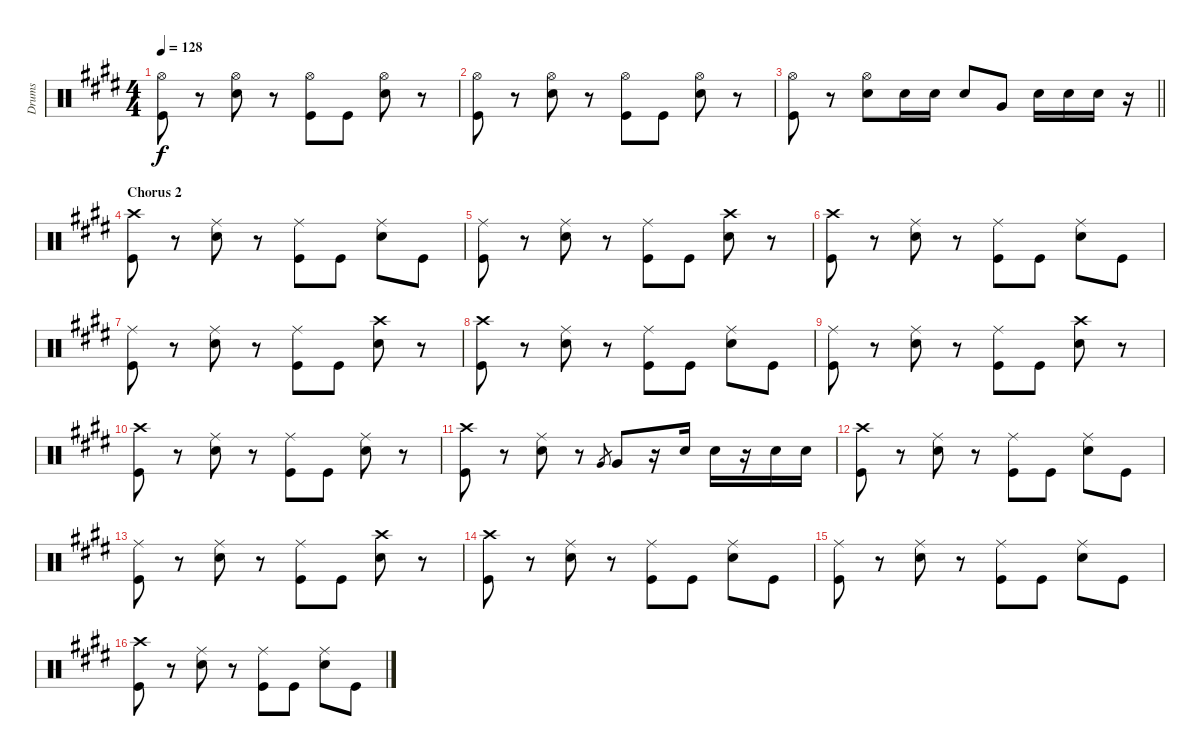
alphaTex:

\track ("Drums" "Drums") {instrument percussion}
\staff {score}
\articulation defaults
\ts (4 4)
\tempo 128
\clef neutral
\ks e
("Hi-Hat (open)" "Kick (hit)").8{dy f} r.8 ("Hi-Hat (open)" "Snare (hit) 2").8 r.8 ("Hi-Hat (open)" "Kick (hit)").8 "Kick (hit)".8 ("Hi-Hat (open)" "Snare (hit) 2").8 r.8 |
("Hi-Hat (open)" "Kick (hit)").8 r.8 ("Hi-Hat (open)" "Snare (hit) 2").8 r.8 ("Hi-Hat (open)" "Kick (hit)").8 "Kick (hit)".8 ("Hi-Hat (open)" "Snare (hit) 2").8 r.8 |
\barLineRight lightlight
("Hi-Hat (open)" "Kick (hit)").8 r.8 ("Hi-Hat (open)" "Snare (hit) 2").8 "Snare (hit) 2".16 "Snare (hit) 2".16 "Snare (hit) 2".8 "Very Low Tom (hit)".8 "Snare (hit) 2".16 "Snare (hit) 2".16 "Snare (hit) 2".16 r.16 |
\section ("" "Chorus 2")
("Crash high (hit)" "Kick (hit)").8 r.8 ("Ride (middle)" "Snare (hit) 2").8 r.8 ("Ride (middle)" "Kick (hit)").8 "Kick (hit)".8 ("Ride (middle)" "Snare (hit) 2").8 "Kick (hit)".8 |
("Ride (middle)" "Kick (hit)").8 r.8 ("Ride (middle)" "Snare (hit) 2").8 r.8 ("Ride (middle)" "Kick (hit)").8 "Kick (hit)".8 ("Crash high (hit)" "Snare (hit) 2").8 r.8 |
("Crash high (hit)" "Kick (hit)").8 r.8 ("Ride (middle)" "Snare (hit) 2").8 r.8 ("Ride (middle)" "Kick (hit)").8 "Kick (hit)".8 ("Ride (middle)" "Snare (hit) 2").8 "Kick (hit)".8 |
("Ride (middle)" "Kick (hit)").8 r.8 ("Ride (middle)" "Snare (hit) 2").8 r.8 ("Ride (middle)" "Kick (hit)").8 "Kick (hit)".8 ("Crash high (hit)" "Snare (hit) 2").8 r.8 |
("Crash high (hit)" "Kick (hit)").8 r.8 ("Ride (middle)" "Snare (hit) 2").8 r.8 ("Ride (middle)" "Kick (hit)").8 "Kick (hit)".8 ("Ride (middle)" "Snare (hit) 2").8 "Kick (hit)".8 |
("Ride (middle)" "Kick (hit)").8 r.8 ("Ride (middle)" "Snare (hit) 2").8 r.8 ("Ride (middle)" "Kick (hit)").8 "Kick (hit)".8 ("Crash high (hit)" "Snare (hit) 2").8 r.8 |
("Crash high (hit)" "Kick (hit)").8 r.8 ("Ride (middle)" "Snare (hit) 2").8 r.8 ("Ride (middle)" "Kick (hit)").8 "Kick (hit)".8 ("Ride (middle)" "Snare (hit) 2").8 r.8 |
("Crash high (hit)" "Kick (hit)").8 r.8 ("Ride (middle)" "Snare (hit) 2").8 r.8 "Very Low Tom (hit)".8{gr} "Very Low Tom (hit)".8 r.16 "Snare (hit) 2".16 "Snare (hit) 2".16 r.16 "Snare (hit) 2".16 "Snare (hit) 2".16 |
("Crash high (hit)" "Kick (hit)").8 r.8 ("Ride (middle)" "Snare (hit) 2").8 r.8 ("Ride (middle)" "Kick (hit)").8 "Kick (hit)".8 ("Ride (middle)" "Snare (hit) 2").8 "Kick (hit)".8 |
("Ride (middle)" "Kick (hit)").8 r.8 ("Ride (middle)" "Snare (hit) 2").8 r.8 ("Ride (middle)" "Kick (hit)").8 "Kick (hit)".8 ("Crash high (hit)" "Snare (hit) 2").8 r.8 |
("Crash high (hit)" "Kick (hit)").8 r.8 ("Ride (middle)" "Snare (hit) 2").8 r.8 ("Ride (middle)" "Kick (hit)").8 "Kick (hit)".8 ("Ride (middle)" "Snare (hit) 2").8 "Kick (hit)".8 |
("Ride (middle)" "Kick (hit)").8 r.8 ("Ride (middle)" "Snare (hit) 2").8 r.8 ("Ride (middle)" "Kick (hit)").8 "Kick (hit)".8 ("Ride (middle)" "Snare (hit) 2").8 "Kick (hit)".8 |
("Crash high (hit)" "Kick (hit)").8 r.8 ("Ride (middle)" "Snare (hit) 2").8 r.8 ("Ride (middle)" "Kick (hit)").8 "Kick (hit)".8 ("Ride (middle)" "Snare (hit) 2").8 "Kick (hit)".8
